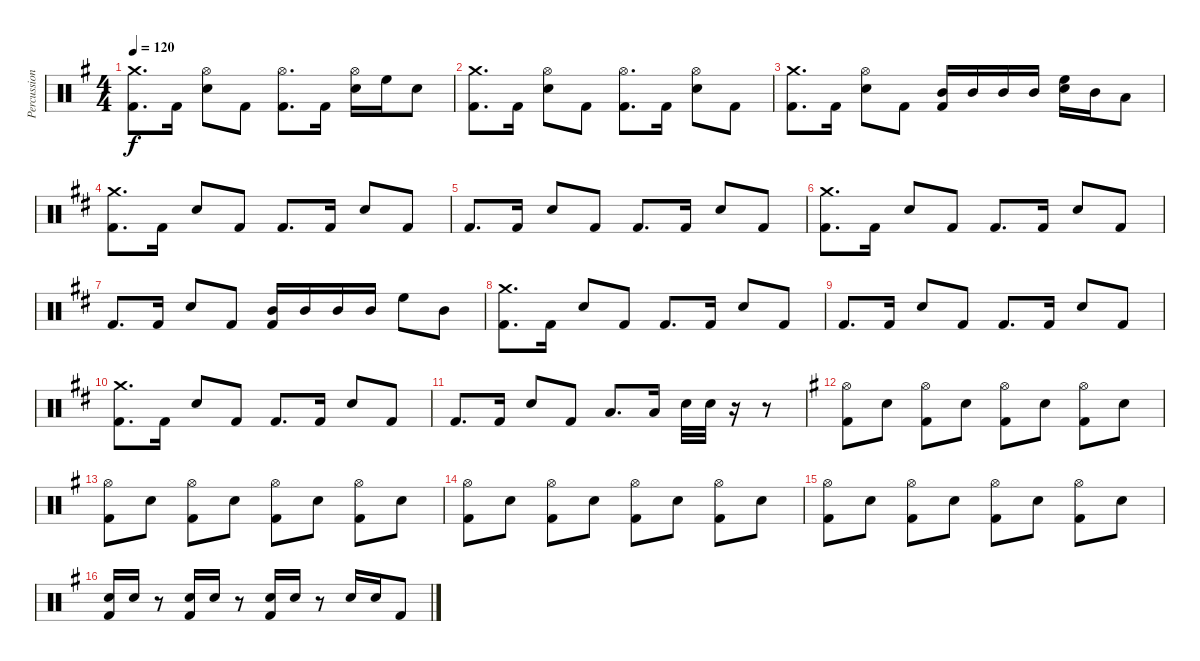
\track ("Percussion" "Percussion") {instrument percussion}
\staff {score}
\articulation defaults
\ts (4 4)
\tempo 120
\clef neutral
\ks g
("Crash medium (hit)" "Kick (hit) 2").8{d dy f} "Kick (hit) 2".16 ("Hi-Hat (open)" "Snare (hit) 2").8 "Kick (hit) 2".8 ("Hi-Hat (open)" "Kick (hit) 2").8{d} "Kick (hit) 2".16 ("Hi-Hat (open)" "Snare (hit) 2").16 "High Floor Tom (hit)".16 "Snare (hit) 2".8 |
("Crash medium (hit)" "Kick (hit) 2").8{d} "Kick (hit) 2".16 ("Hi-Hat (open)" "Snare (hit) 2").8 "Kick (hit) 2".8 ("Hi-Hat (open)" "Kick (hit) 2").8{d} "Kick (hit) 2".16 ("Hi-Hat (open)" "Snare (hit) 2").8 "Kick (hit) 2".8 |
("Crash medium (hit)" "Kick (hit) 2").8{d} "Kick (hit) 2".16 ("Hi-Hat (open)" "Snare (hit) 2").8 "Kick (hit) 2".8 ("Mid Tom (hit)" "Kick (hit) 2").16 "Mid Tom (hit)".16 "Mid Tom (hit)".16 "Mid Tom (hit)".16 ("High Floor Tom (hit)" "Snare (hit) 2").16 "Mid Tom (hit)".16 "Low Floor Tom (hit)".8 |
\ks d
("Crash medium (hit)" "Kick (hit) 2").8{d} "Kick (hit) 2".16 "Snare (hit) 2".8 "Kick (hit) 2".8 "Kick (hit) 2".8{d} "Kick (hit) 2".16 "Snare (hit) 2".8 "Kick (hit) 2".8 |
"Kick (hit) 2".8{d} "Kick (hit) 2".16 "Snare (hit) 2".8 "Kick (hit) 2".8 "Kick (hit) 2".8{d} "Kick (hit) 2".16 "Snare (hit) 2".8 "Kick (hit) 2".8 |
("Crash medium (hit)" "Kick (hit) 2").8{d} "Kick (hit) 2".16 "Snare (hit) 2".8 "Kick (hit) 2".8 "Kick (hit) 2".8{d} "Kick (hit) 2".16 "Snare (hit) 2".8 "Kick (hit) 2".8 |
"Kick (hit) 2".8{d} "Kick (hit) 2".16 "Snare (hit) 2".8 "Kick (hit) 2".8 ("Mid Tom (hit)" "Kick (hit) 2").16 "Mid Tom (hit)".16 "Mid Tom (hit)".16 "Mid Tom (hit)".16 "High Floor Tom (hit)".8 "Mid Tom (hit)".8 |
("Crash medium (hit)" "Kick (hit) 2").8{d} "Kick (hit) 2".16 "Snare (hit) 2".8 "Kick (hit) 2".8 "Kick (hit) 2".8{d} "Kick (hit) 2".16 "Snare (hit) 2".8 "Kick (hit) 2".8 |
"Kick (hit) 2".8{d} "Kick (hit) 2".16 "Snare (hit) 2".8 "Kick (hit) 2".8 "Kick (hit) 2".8{d} "Kick (hit) 2".16 "Snare (hit) 2".8 "Kick (hit) 2".8 |
("Crash medium (hit)" "Kick (hit) 2").8{d} "Kick (hit) 2".16 "Snare (hit) 2".8 "Kick (hit) 2".8 "Kick (hit) 2".8{d} "Kick (hit) 2".16 "Snare (hit) 2".8 "Kick (hit) 2".8 |
"Kick (hit) 2".8{d} "Kick (hit) 2".16 "Snare (hit) 2".8 "Kick (hit) 2".8 "Low Floor Tom (hit)".8{d} "Low Floor Tom (hit)".16 "Snare (hit) 2".32 "Snare (hit) 2".32 r.16 r.8 |
\ks g
("Hi-Hat (open)" "Kick (hit) 2").8 "Snare (hit) 2".8 ("Hi-Hat (open)" "Kick (hit) 2").8 "Snare (hit) 2".8 ("Hi-Hat (open)" "Kick (hit) 2").8 "Snare (hit) 2".8 ("Hi-Hat (open)" "Kick (hit) 2").8 "Snare (hit) 2".8 |
("Hi-Hat (open)" "Kick (hit) 2").8 "Snare (hit) 2".8 ("Hi-Hat (open)" "Kick (hit) 2").8 "Snare (hit) 2".8 ("Hi-Hat (open)" "Kick (hit) 2").8 "Snare (hit) 2".8 ("Hi-Hat (open)" "Kick (hit) 2").8 "Snare (hit) 2".8 |
("Hi-Hat (open)" "Kick (hit) 2").8 "Snare (hit) 2".8 ("Hi-Hat (open)" "Kick (hit) 2").8 "Snare (hit) 2".8 ("Hi-Hat (open)" "Kick (hit) 2").8 "Snare (hit) 2".8 ("Hi-Hat (open)" "Kick (hit) 2").8 "Snare (hit) 2".8 |
("Hi-Hat (open)" "Kick (hit) 2").8 "Snare (hit) 2".8 ("Hi-Hat (open)" "Kick (hit) 2").8 "Snare (hit) 2".8 ("Hi-Hat (open)" "Kick (hit) 2").8 "Snare (hit) 2".8 ("Hi-Hat (open)" "Kick (hit) 2").8 "Snare (hit) 2".8 |
("Snare (hit) 2" "Kick (hit) 2").16 "Snare (hit) 2".16 r.8 ("Snare (hit) 2" "Kick (hit) 2").16 "Snare (hit) 2".16 r.8 ("Snare (hit) 2" "Kick (hit) 2").16 "Snare (hit) 2".16 r.8 "Snare (hit) 2".16 "Snare (hit) 2".16 "Kick (hit) 2".8
